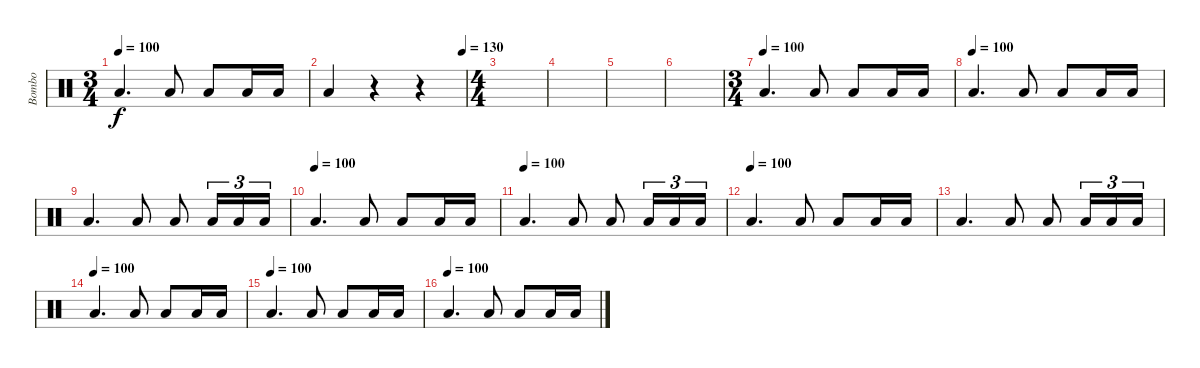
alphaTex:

\track ("Bombo" "Bombo") {instrument percussion}
\staff {score}
\articulation defaults
\ts (3 4)
\tempo 100
\clef neutral
\ks c "Low Floor Tom (hit)".4{d dy f} "Low Floor Tom (hit)".8 "Low Floor Tom (hit)".8 "Low Floor Tom (hit)".16 "Low Floor Tom (hit)".16
|
\tempo (130 0.9791666666666666)
"Low Floor Tom (hit)".4 r.4 r.4 |
\ts (4 4)
|
|
|
|
\ts (3 4)
\tempo (100)
"Low Floor Tom (hit)".4{d} "Low Floor Tom (hit)".8 "Low Floor Tom (hit)".8 "Low Floor Tom (hit)".16 "Low Floor Tom (hit)".16 |
\tempo (100)
"Low Floor Tom (hit)".4{d} "Low Floor Tom (hit)".8 "Low Floor Tom (hit)".8 "Low Floor Tom (hit)".16 "Low Floor Tom (hit)".16 |
"Low Floor Tom (hit)".4{d} "Low Floor Tom (hit)".8 "Low Floor Tom (hit)".8 "Low Floor Tom (hit)".16{tu (3 2)} "Low Floor Tom (hit)".16{tu (3 2)} "Low Floor Tom (hit)".16{tu (3 2)} |
\tempo (100)
"Low Floor Tom (hit)".4{d} "Low Floor Tom (hit)".8 "Low Floor Tom (hit)".8 "Low Floor Tom (hit)".16 "Low Floor Tom (hit)".16 |
\tempo (100)
"Low Floor Tom (hit)".4{d} "Low Floor Tom (hit)".8 "Low Floor Tom (hit)".8 "Low Floor Tom (hit)".16{tu (3 2)} "Low Floor Tom (hit)".16{tu (3 2)} "Low Floor Tom (hit)".16{tu (3 2)} |
\tempo (100)
"Low Floor Tom (hit)".4{d} "Low Floor Tom (hit)".8 "Low Floor Tom (hit)".8 "Low Floor Tom (hit)".16 "Low Floor Tom (hit)".16 |
"Low Floor Tom (hit)".4{d} "Low Floor Tom (hit)".8 "Low Floor Tom (hit)".8 "Low Floor Tom (hit)".16{tu (3 2)} "Low Floor Tom (hit)".16{tu (3 2)} "Low Floor Tom (hit)".16{tu (3 2)} |
\tempo (100)
"Low Floor Tom (hit)".4{d} "Low Floor Tom (hit)".8 "Low Floor Tom (hit)".8 "Low Floor Tom (hit)".16 "Low Floor Tom (hit)".16 |
\tempo (100)
"Low Floor Tom (hit)".4{d} "Low Floor Tom (hit)".8 "Low Floor Tom (hit)".8 "Low Floor Tom (hit)".16 "Low Floor Tom (hit)".16 |
\tempo (100)
"Low Floor Tom (hit)".4{d} "Low Floor Tom (hit)".8 "Low Floor Tom (hit)".8 "Low Floor Tom (hit)".16 "Low Floor Tom (hit)".16
